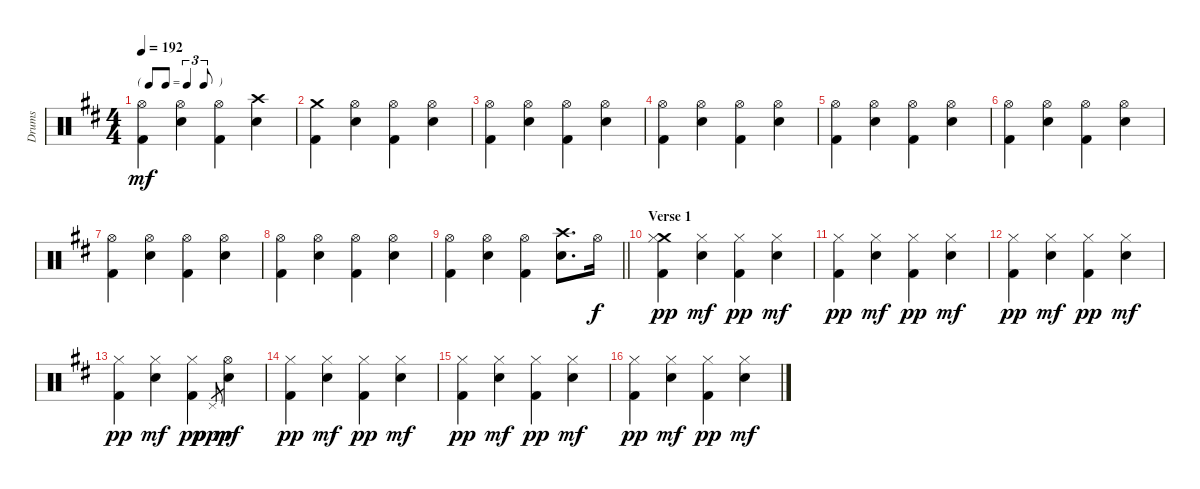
\track ("Drums" "Drums") {instrument percussion}
\staff {score}
\articulation defaults
\ts (4 4)
\tf triplet8th
\tempo 192
\clef neutral
\ks bminor
("Hi-Hat (open)" "Kick (hit) 2").4{dy mf} ("Hi-Hat (open)" "Snare (hit) 2").4 ("Hi-Hat (open)" "Kick (hit) 2").4 ("Crash high (hit)" "Snare (hit) 2").4 |
("Crash medium (hit)" "Kick (hit) 2").4 ("Hi-Hat (open)" "Snare (hit) 2").4 ("Hi-Hat (open)" "Kick (hit) 2").4 ("Hi-Hat (open)" "Snare (hit) 2").4 |
("Hi-Hat (open)" "Kick (hit) 2").4 ("Hi-Hat (open)" "Snare (hit) 2").4 ("Hi-Hat (open)" "Kick (hit) 2").4 ("Hi-Hat (open)" "Snare (hit) 2").4 |
("Hi-Hat (open)" "Kick (hit) 2").4 ("Hi-Hat (open)" "Snare (hit) 2").4 ("Hi-Hat (open)" "Kick (hit) 2").4 ("Hi-Hat (open)" "Snare (hit) 2").4 |
("Hi-Hat (open)" "Kick (hit) 2").4 ("Hi-Hat (open)" "Snare (hit) 2").4 ("Hi-Hat (open)" "Kick (hit) 2").4 ("Hi-Hat (open)" "Snare (hit) 2").4 |
("Hi-Hat (open)" "Kick (hit) 2").4 ("Hi-Hat (open)" "Snare (hit) 2").4 ("Hi-Hat (open)" "Kick (hit) 2").4 ("Hi-Hat (open)" "Snare (hit) 2").4 |
("Hi-Hat (open)" "Kick (hit) 2").4 ("Hi-Hat (open)" "Snare (hit) 2").4 ("Hi-Hat (open)" "Kick (hit) 2").4 ("Hi-Hat (open)" "Snare (hit) 2").4 |
("Hi-Hat (open)" "Kick (hit) 2").4 ("Hi-Hat (open)" "Snare (hit) 2").4 ("Hi-Hat (open)" "Kick (hit) 2").4 ("Hi-Hat (open)" "Snare (hit) 2").4 |
\barLineRight lightlight
("Hi-Hat (open)" "Kick (hit) 2").4 ("Hi-Hat (open)" "Snare (hit) 2").4 ("Hi-Hat (open)" "Kick (hit) 2").4 ("Crash high (hit)" "Snare (hit) 2").8{d} "Hi-Hat (open)".16{dy f} |
\section ("" "Verse 1")
("Crash medium (hit)" "Hi-Hat (closed)" "Kick (hit) 2").4{dy pp} ("Hi-Hat (closed)" "Snare (hit) 2").4{dy mf} ("Hi-Hat (closed)" "Kick (hit) 2").4{dy pp} ("Hi-Hat (closed)" "Snare (hit) 2").4{dy mf} |
("Hi-Hat (closed)" "Kick (hit) 2").4{dy pp} ("Hi-Hat (closed)" "Snare (hit) 2").4{dy mf} ("Hi-Hat (closed)" "Kick (hit) 2").4{dy pp} ("Hi-Hat (closed)" "Snare (hit) 2").4{dy mf} |
("Hi-Hat (closed)" "Kick (hit) 2").4{dy pp} ("Hi-Hat (closed)" "Snare (hit) 2").4{dy mf} ("Hi-Hat (closed)" "Kick (hit) 2").4{dy pp} ("Hi-Hat (closed)" "Snare (hit) 2").4{dy mf} |
("Hi-Hat (closed)" "Kick (hit) 2").4{dy pp} ("Hi-Hat (closed)" "Snare (hit) 2").4{dy mf} ("Hi-Hat (closed)" "Kick (hit) 2").4{dy pp} "Pedal Hi-Hat (hit)".8{gr dy ppp} ("Hi-Hat (open)" "Snare (hit) 2").4{dy mf} |
("Hi-Hat (closed)" "Kick (hit) 2").4{dy pp} ("Hi-Hat (closed)" "Snare (hit) 2").4{dy mf} ("Hi-Hat (closed)" "Kick (hit) 2").4{dy pp} ("Hi-Hat (closed)" "Snare (hit) 2").4{dy mf} |
("Hi-Hat (closed)" "Kick (hit) 2").4{dy pp} ("Hi-Hat (closed)" "Snare (hit) 2").4{dy mf} ("Hi-Hat (closed)" "Kick (hit) 2").4{dy pp} ("Hi-Hat (closed)" "Snare (hit) 2").4{dy mf} |
("Hi-Hat (closed)" "Kick (hit) 2").4{dy pp} ("Hi-Hat (closed)" "Snare (hit) 2").4{dy mf} ("Hi-Hat (closed)" "Kick (hit) 2").4{dy pp} ("Hi-Hat (closed)" "Snare (hit) 2").4{dy mf}
